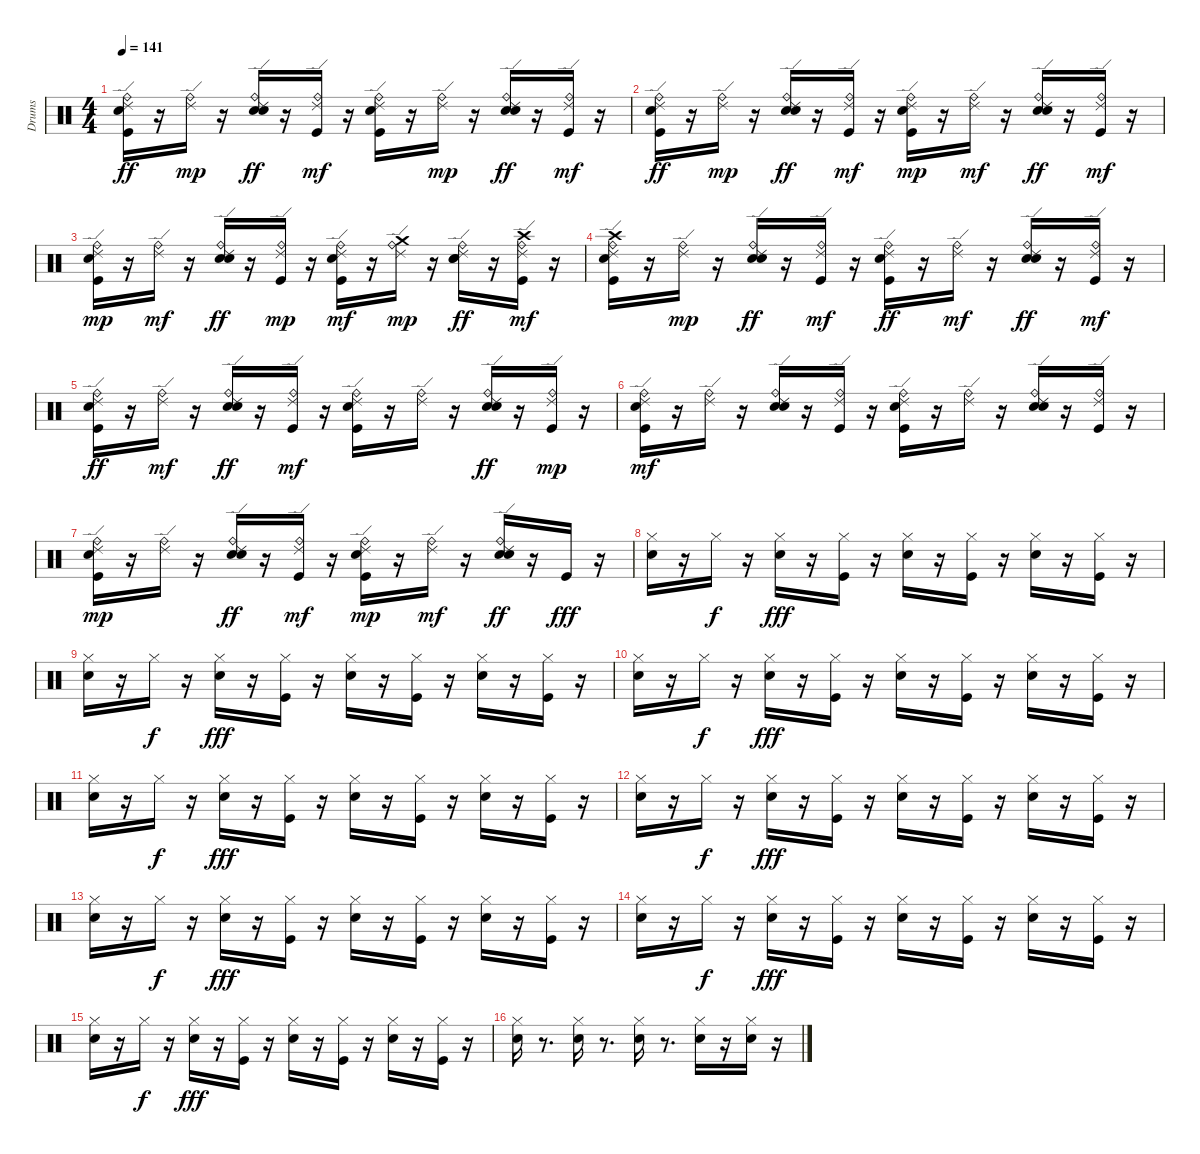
\track ("Drums" "Drums") {instrument percussion}
\staff {score}
\articulation defaults
\ts (4 4)
\tempo 141
\clef neutral
\ks c
("Kick (hit)" "Hand Clap (hit)" "Ride (bell)" "Ride (edge) 2").16{dy ff} r.16 ("Ride (bell)" "Ride (edge) 2").16{dy mp} r.16 ("Hand Clap (hit)" "Electric Snare (hit)" "Ride (bell)" "Ride (edge) 2").16{dy ff} r.16 ("Kick (hit)" "Ride (bell)" "Ride (edge) 2").16{dy mf} r.16 ("Kick (hit)" "Hand Clap (hit)" "Ride (bell)" "Ride (edge) 2").16 r.16 ("Ride (bell)" "Ride (edge) 2").16{dy mp} r.16 ("Hand Clap (hit)" "Electric Snare (hit)" "Ride (bell)" "Ride (edge) 2").16{dy ff} r.16 ("Kick (hit)" "Ride (bell)" "Ride (edge) 2").16{dy mf} r.16 |
("Kick (hit)" "Hand Clap (hit)" "Ride (bell)" "Ride (edge) 2").16{dy ff} r.16 ("Ride (bell)" "Ride (edge) 2").16{dy mp} r.16 ("Hand Clap (hit)" "Electric Snare (hit)" "Ride (bell)" "Ride (edge) 2").16{dy ff} r.16 ("Kick (hit)" "Ride (bell)" "Ride (edge) 2").16{dy mf} r.16 ("Kick (hit)" "Hand Clap (hit)" "Ride (bell)" "Ride (edge) 2").16{dy mp} r.16 ("Ride (bell)" "Ride (edge) 2").16{dy mf} r.16 ("Hand Clap (hit)" "Electric Snare (hit)" "Ride (bell)" "Ride (edge) 2").16{dy ff} r.16 ("Kick (hit)" "Ride (bell)" "Ride (edge) 2").16{dy mf} r.16 |
("Kick (hit)" "Hand Clap (hit)" "Ride (bell)" "Ride (edge) 2").16{dy mp} r.16 ("Ride (bell)" "Ride (edge) 2").16{dy mf} r.16 ("Hand Clap (hit)" "Electric Snare (hit)" "Ride (bell)" "Ride (edge) 2").16{dy ff} r.16 ("Kick (hit)" "Ride (bell)" "Ride (edge) 2").16{dy mp} r.16 ("Kick (hit)" "Hand Clap (hit)" "Ride (bell)" "Ride (edge) 2").16{dy mf} r.16 ("Ride (bell)" "Crash medium (hit)" "Ride (edge) 2").16{dy mp} r.16 ("Hand Clap (hit)" "Electric Snare (hit)" "Ride (bell)" "Ride (edge) 2").16{dy ff} r.16 ("Kick (hit)" "Crash high (hit)" "Ride (bell)" "Ride (edge) 2").16{dy mf} r.16 |
("Kick (hit)" "Hand Clap (hit)" "Crash high (hit)" "Ride (bell)" "Ride (edge) 2").16 r.16 ("Ride (bell)" "Ride (edge) 2").16{dy mp} r.16 ("Hand Clap (hit)" "Electric Snare (hit)" "Ride (bell)" "Ride (edge) 2").16{dy ff} r.16 ("Kick (hit)" "Ride (bell)" "Ride (edge) 2").16{dy mf} r.16 ("Kick (hit)" "Hand Clap (hit)" "Ride (bell)" "Ride (edge) 2").16{dy ff} r.16 ("Ride (bell)" "Ride (edge) 2").16{dy mf} r.16 ("Hand Clap (hit)" "Electric Snare (hit)" "Ride (bell)" "Ride (edge) 2").16{dy ff} r.16 ("Kick (hit)" "Ride (bell)" "Ride (edge) 2").16{dy mf} r.16 |
("Kick (hit)" "Hand Clap (hit)" "Ride (bell)" "Ride (edge) 2").16{dy ff} r.16 ("Ride (bell)" "Ride (edge) 2").16{dy mf} r.16 ("Hand Clap (hit)" "Electric Snare (hit)" "Ride (bell)" "Ride (edge) 2").16{dy ff} r.16 ("Kick (hit)" "Ride (bell)" "Ride (edge) 2").16{dy mf} r.16 ("Kick (hit)" "Hand Clap (hit)" "Ride (bell)" "Ride (edge) 2").16 r.16 ("Ride (bell)" "Ride (edge) 2").16 r.16 ("Hand Clap (hit)" "Electric Snare (hit)" "Ride (bell)" "Ride (edge) 2").16{dy ff} r.16 ("Kick (hit)" "Ride (bell)" "Ride (edge) 2").16{dy mp} r.16 |
("Kick (hit)" "Hand Clap (hit)" "Ride (bell)" "Ride (edge) 2").16{dy mf} r.16 ("Ride (bell)" "Ride (edge) 2").16 r.16 ("Hand Clap (hit)" "Electric Snare (hit)" "Ride (bell)" "Ride (edge) 2").16 r.16 ("Kick (hit)" "Ride (bell)" "Ride (edge) 2").16 r.16 ("Kick (hit)" "Hand Clap (hit)" "Ride (bell)" "Ride (edge) 2").16 r.16 ("Ride (bell)" "Ride (edge) 2").16 r.16 ("Hand Clap (hit)" "Electric Snare (hit)" "Ride (bell)" "Ride (edge) 2").16 r.16 ("Kick (hit)" "Ride (bell)" "Ride (edge) 2").16 r.16 |
("Kick (hit)" "Hand Clap (hit)" "Ride (bell)" "Ride (edge) 2").16{dy mp} r.16 ("Ride (bell)" "Ride (edge) 2").16 r.16 ("Hand Clap (hit)" "Electric Snare (hit)" "Ride (bell)" "Ride (edge) 2").16{dy ff} r.16 ("Kick (hit)" "Ride (bell)" "Ride (edge) 2").16{dy mf} r.16 ("Kick (hit)" "Hand Clap (hit)" "Ride (bell)" "Ride (edge) 2").16{dy mp} r.16 ("Ride (bell)" "Ride (edge) 2").16{dy mf} r.16 ("Hand Clap (hit)" "Electric Snare (hit)" "Ride (bell)" "Ride (edge) 2").16{dy ff} r.16 "Kick (hit)".16{dy fff} r.16 |
("Electric Snare (hit)" "Hi-Hat (closed)").16 r.16 "Hi-Hat (closed)".16{dy f} r.16 ("Electric Snare (hit)" "Hi-Hat (closed)").16{dy fff} r.16 ("Kick (hit)" "Hi-Hat (closed)").16 r.16 ("Electric Snare (hit)" "Hi-Hat (closed)").16 r.16 ("Kick (hit)" "Hi-Hat (closed)").16 r.16 ("Electric Snare (hit)" "Hi-Hat (closed)").16 r.16 ("Kick (hit)" "Hi-Hat (closed)").16 r.16 |
("Electric Snare (hit)" "Hi-Hat (closed)").16 r.16 "Hi-Hat (closed)".16{dy f} r.16 ("Electric Snare (hit)" "Hi-Hat (closed)").16{dy fff} r.16 ("Kick (hit)" "Hi-Hat (closed)").16 r.16 ("Electric Snare (hit)" "Hi-Hat (closed)").16 r.16 ("Kick (hit)" "Hi-Hat (closed)").16 r.16 ("Electric Snare (hit)" "Hi-Hat (closed)").16 r.16 ("Kick (hit)" "Hi-Hat (closed)").16 r.16 |
("Electric Snare (hit)" "Hi-Hat (closed)").16 r.16 "Hi-Hat (closed)".16{dy f} r.16 ("Electric Snare (hit)" "Hi-Hat (closed)").16{dy fff} r.16 ("Kick (hit)" "Hi-Hat (closed)").16 r.16 ("Electric Snare (hit)" "Hi-Hat (closed)").16 r.16 ("Kick (hit)" "Hi-Hat (closed)").16 r.16 ("Electric Snare (hit)" "Hi-Hat (closed)").16 r.16 ("Kick (hit)" "Hi-Hat (closed)").16 r.16 |
("Electric Snare (hit)" "Hi-Hat (closed)").16 r.16 "Hi-Hat (closed)".16{dy f} r.16 ("Electric Snare (hit)" "Hi-Hat (closed)").16{dy fff} r.16 ("Kick (hit)" "Hi-Hat (closed)").16 r.16 ("Electric Snare (hit)" "Hi-Hat (closed)").16 r.16 ("Kick (hit)" "Hi-Hat (closed)").16 r.16 ("Electric Snare (hit)" "Hi-Hat (closed)").16 r.16 ("Kick (hit)" "Hi-Hat (closed)").16 r.16 |
("Electric Snare (hit)" "Hi-Hat (closed)").16 r.16 "Hi-Hat (closed)".16{dy f} r.16 ("Electric Snare (hit)" "Hi-Hat (closed)").16{dy fff} r.16 ("Kick (hit)" "Hi-Hat (closed)").16 r.16 ("Electric Snare (hit)" "Hi-Hat (closed)").16 r.16 ("Kick (hit)" "Hi-Hat (closed)").16 r.16 ("Electric Snare (hit)" "Hi-Hat (closed)").16 r.16 ("Kick (hit)" "Hi-Hat (closed)").16 r.16 |
("Electric Snare (hit)" "Hi-Hat (closed)").16 r.16 "Hi-Hat (closed)".16{dy f} r.16 ("Electric Snare (hit)" "Hi-Hat (closed)").16{dy fff} r.16 ("Kick (hit)" "Hi-Hat (closed)").16 r.16 ("Electric Snare (hit)" "Hi-Hat (closed)").16 r.16 ("Kick (hit)" "Hi-Hat (closed)").16 r.16 ("Electric Snare (hit)" "Hi-Hat (closed)").16 r.16 ("Kick (hit)" "Hi-Hat (closed)").16 r.16 |
("Electric Snare (hit)" "Hi-Hat (closed)").16 r.16 "Hi-Hat (closed)".16{dy f} r.16 ("Electric Snare (hit)" "Hi-Hat (closed)").16{dy fff} r.16 ("Kick (hit)" "Hi-Hat (closed)").16 r.16 ("Electric Snare (hit)" "Hi-Hat (closed)").16 r.16 ("Kick (hit)" "Hi-Hat (closed)").16 r.16 ("Electric Snare (hit)" "Hi-Hat (closed)").16 r.16 ("Kick (hit)" "Hi-Hat (closed)").16 r.16 |
("Electric Snare (hit)" "Hi-Hat (closed)").16 r.16 "Hi-Hat (closed)".16{dy f} r.16 ("Electric Snare (hit)" "Hi-Hat (closed)").16{dy fff} r.16 ("Kick (hit)" "Hi-Hat (closed)").16 r.16 ("Electric Snare (hit)" "Hi-Hat (closed)").16 r.16 ("Kick (hit)" "Hi-Hat (closed)").16 r.16 ("Electric Snare (hit)" "Hi-Hat (closed)").16 r.16 ("Kick (hit)" "Hi-Hat (closed)").16 r.16 |
("Electric Snare (hit)" "Hi-Hat (closed)").16 r.8{d} ("Electric Snare (hit)" "Hi-Hat (closed)").16 r.8{d} ("Electric Snare (hit)" "Hi-Hat (closed)").16 r.8{d} ("Electric Snare (hit)" "Hi-Hat (closed)").16 r.16 ("Electric Snare (hit)" "Hi-Hat (closed)").16 r.16
